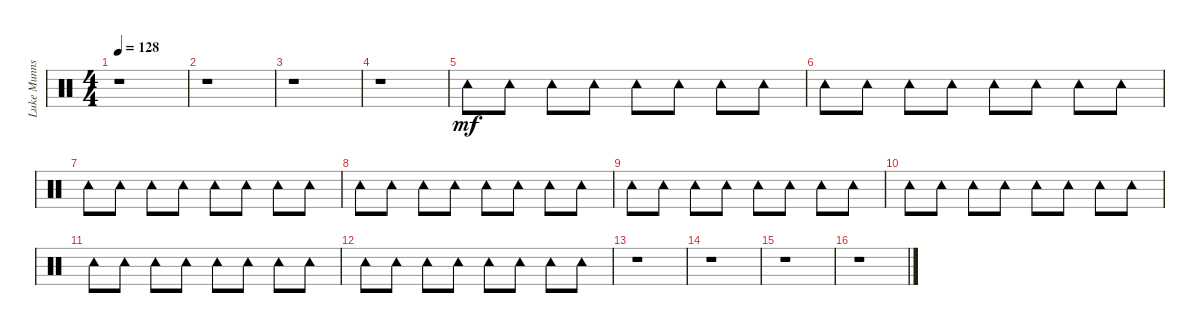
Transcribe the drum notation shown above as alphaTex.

\track ("Luke Munns" "Luke Munns") {instrument percussion}
\staff {score}
\articulation defaults
\ts (4 4)
\tempo 128
\clef neutral
\ks c
r.1{dy f} |
r.1 |
r.1 |
r.1 |
"Tambourine (hit)".8{dy mf} "Tambourine (hit)".8 "Tambourine (hit)".8 "Tambourine (hit)".8 "Tambourine (hit)".8 "Tambourine (hit)".8 "Tambourine (hit)".8 "Tambourine (hit)".8 |
"Tambourine (hit)".8 "Tambourine (hit)".8 "Tambourine (hit)".8 "Tambourine (hit)".8 "Tambourine (hit)".8 "Tambourine (hit)".8 "Tambourine (hit)".8 "Tambourine (hit)".8 |
"Tambourine (hit)".8 "Tambourine (hit)".8 "Tambourine (hit)".8 "Tambourine (hit)".8 "Tambourine (hit)".8 "Tambourine (hit)".8 "Tambourine (hit)".8 "Tambourine (hit)".8 |
"Tambourine (hit)".8 "Tambourine (hit)".8 "Tambourine (hit)".8 "Tambourine (hit)".8 "Tambourine (hit)".8 "Tambourine (hit)".8 "Tambourine (hit)".8 "Tambourine (hit)".8 |
"Tambourine (hit)".8 "Tambourine (hit)".8 "Tambourine (hit)".8 "Tambourine (hit)".8 "Tambourine (hit)".8 "Tambourine (hit)".8 "Tambourine (hit)".8 "Tambourine (hit)".8 |
"Tambourine (hit)".8 "Tambourine (hit)".8 "Tambourine (hit)".8 "Tambourine (hit)".8 "Tambourine (hit)".8 "Tambourine (hit)".8 "Tambourine (hit)".8 "Tambourine (hit)".8 |
"Tambourine (hit)".8 "Tambourine (hit)".8 "Tambourine (hit)".8 "Tambourine (hit)".8 "Tambourine (hit)".8 "Tambourine (hit)".8 "Tambourine (hit)".8 "Tambourine (hit)".8 |
"Tambourine (hit)".8 "Tambourine (hit)".8 "Tambourine (hit)".8 "Tambourine (hit)".8 "Tambourine (hit)".8 "Tambourine (hit)".8 "Tambourine (hit)".8 "Tambourine (hit)".8 |
r.1 |
r.1 |
r.1 |
r.1
